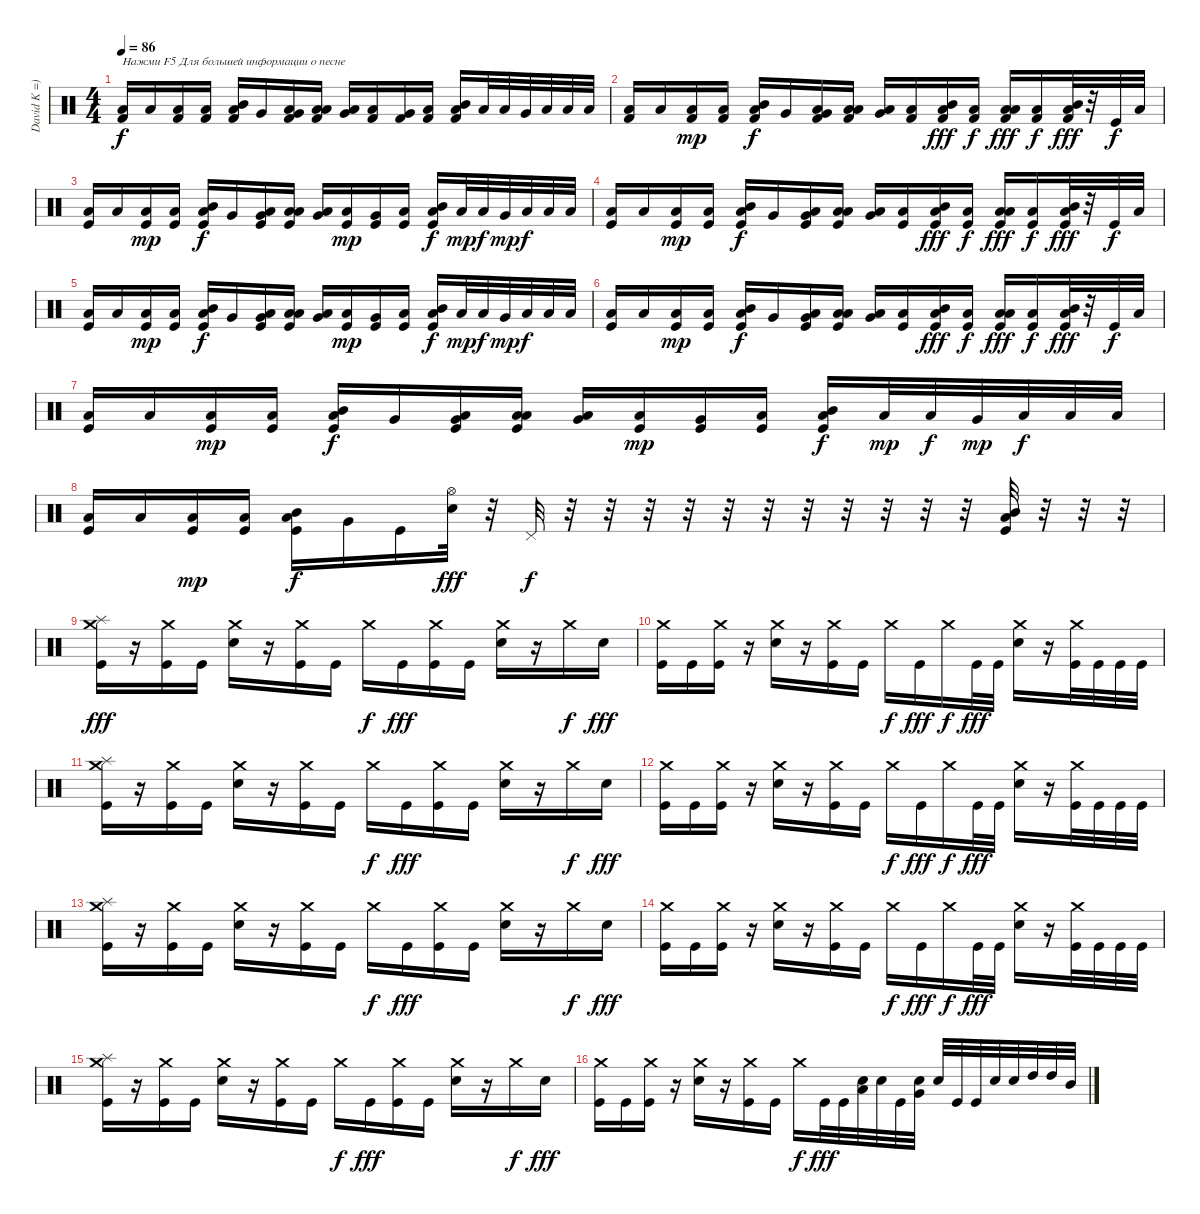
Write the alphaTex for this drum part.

\track ("David K =)" "David K =)") {instrument percussion}
\staff {score}
\articulation defaults
\ts (4 4)
\tempo 86
\clef neutral
\ks c
("Kick (hit) 2" "Low Floor Tom (hit)").16{txt "Нажми F5 Для большей информации о песне" dy f} "Low Tom (hit)".16 ("Kick (hit) 2" "Low Floor Tom (hit)").16 ("Kick (hit) 2" "Low Floor Tom (hit)").16 ("Kick (hit) 2" "Low Floor Tom (hit)" "Mid Tom (hit)").16 "Very Low Tom (hit)".16 ("Kick (hit) 2" "Low Floor Tom (hit)" "Very Low Tom (hit)").16 ("Kick (hit) 2" "Low Floor Tom (hit)" "Low Tom (hit)").16 ("Low Floor Tom (hit)" "Very Low Tom (hit)").16 ("Kick (hit) 2" "Low Floor Tom (hit)").16 ("Kick (hit) 2" "Very Low Tom (hit)").16 ("Kick (hit) 2" "Low Tom (hit)").16 ("Kick (hit) 2" "Low Floor Tom (hit)" "Mid Tom (hit)").16 "Low Floor Tom (hit)".32 "Low Tom (hit)".32 "Very Low Tom (hit)".32 "Low Floor Tom (hit)".32 "Low Floor Tom (hit)".32 "Low Tom (hit)".32 |
("Kick (hit) 2" "Low Floor Tom (hit)").16 "Low Tom (hit)".16 ("Kick (hit) 2" "Low Floor Tom (hit)").16{dy mp} ("Kick (hit) 2" "Low Floor Tom (hit)").16 ("Kick (hit) 2" "Low Floor Tom (hit)" "Mid Tom (hit)").16{dy f} "Very Low Tom (hit)".16 ("Kick (hit) 2" "Low Floor Tom (hit)" "Very Low Tom (hit)").16 ("Kick (hit) 2" "Low Floor Tom (hit)" "Low Tom (hit)").16 ("Low Floor Tom (hit)" "Very Low Tom (hit)").16 ("Kick (hit) 2" "Low Floor Tom (hit)").16 ("Kick (hit) 2" "Mid Tom (hit)" "Low Floor Tom (hit)").16{dy fff} ("Kick (hit) 2" "Low Floor Tom (hit)").16{dy f} ("Kick (hit) 2" "Low Tom (hit)" "Low Floor Tom (hit)").16{dy fff} ("Kick (hit) 2" "Low Floor Tom (hit)").16{dy f} ("Kick (hit) 2" "Mid Tom (hit)" "Low Floor Tom (hit)").32{dy fff} r.32 "Kick (hit)".32{dy f} "Low Floor Tom (hit)".32 |
("Kick (hit)" "Low Floor Tom (hit)").16 "Low Tom (hit)".16 ("Kick (hit)" "Low Floor Tom (hit)").16{dy mp} ("Kick (hit)" "Low Floor Tom (hit)").16 ("Kick (hit)" "Low Floor Tom (hit)" "Mid Tom (hit)").16{dy f} "Very Low Tom (hit)".16 ("Kick (hit)" "Low Floor Tom (hit)" "Very Low Tom (hit)").16 ("Kick (hit)" "Low Floor Tom (hit)" "Low Tom (hit)").16 ("Low Floor Tom (hit)" "Very Low Tom (hit)").16 ("Kick (hit)" "Low Floor Tom (hit)").16{dy mp} ("Kick (hit)" "Very Low Tom (hit)").16 ("Kick (hit)" "Low Tom (hit)").16 ("Kick (hit)" "Low Floor Tom (hit)" "Mid Tom (hit)").16{dy f} "Low Floor Tom (hit)".32{dy mp} "Low Tom (hit)".32{dy f} "Very Low Tom (hit)".32{dy mp} "Low Floor Tom (hit)".32{dy f} "Low Floor Tom (hit)".32 "Low Tom (hit)".32 |
("Kick (hit)" "Low Floor Tom (hit)").16 "Low Tom (hit)".16 ("Kick (hit)" "Low Floor Tom (hit)").16{dy mp} ("Kick (hit)" "Low Floor Tom (hit)").16 ("Kick (hit)" "Low Floor Tom (hit)" "Mid Tom (hit)").16{dy f} "Very Low Tom (hit)".16 ("Kick (hit)" "Low Floor Tom (hit)" "Very Low Tom (hit)").16 ("Kick (hit)" "Low Floor Tom (hit)" "Low Tom (hit)").16 ("Low Floor Tom (hit)" "Very Low Tom (hit)").16 ("Kick (hit)" "Low Floor Tom (hit)").16 ("Kick (hit)" "Mid Tom (hit)" "Low Floor Tom (hit)").16{dy fff} ("Kick (hit)" "Low Floor Tom (hit)").16{dy f} ("Kick (hit)" "Low Tom (hit)" "Low Floor Tom (hit)").16{dy fff} ("Kick (hit)" "Low Floor Tom (hit)").16{dy f} ("Kick (hit)" "Mid Tom (hit)" "Low Floor Tom (hit)").32{dy fff} r.32 "Kick (hit)".32{dy f} "Low Floor Tom (hit)".32 |
("Kick (hit)" "Low Floor Tom (hit)").16 "Low Tom (hit)".16 ("Kick (hit)" "Low Floor Tom (hit)").16{dy mp} ("Kick (hit)" "Low Floor Tom (hit)").16 ("Kick (hit)" "Low Floor Tom (hit)" "Mid Tom (hit)").16{dy f} "Very Low Tom (hit)".16 ("Kick (hit)" "Low Floor Tom (hit)" "Very Low Tom (hit)").16 ("Kick (hit)" "Low Floor Tom (hit)" "Low Tom (hit)").16 ("Low Floor Tom (hit)" "Very Low Tom (hit)").16 ("Kick (hit)" "Low Floor Tom (hit)").16{dy mp} ("Kick (hit)" "Very Low Tom (hit)").16 ("Kick (hit)" "Low Tom (hit)").16 ("Kick (hit)" "Low Floor Tom (hit)" "Mid Tom (hit)").16{dy f} "Low Floor Tom (hit)".32{dy mp} "Low Tom (hit)".32{dy f} "Very Low Tom (hit)".32{dy mp} "Low Floor Tom (hit)".32{dy f} "Low Floor Tom (hit)".32 "Low Tom (hit)".32 |
("Kick (hit)" "Low Floor Tom (hit)").16 "Low Tom (hit)".16 ("Kick (hit)" "Low Floor Tom (hit)").16{dy mp} ("Kick (hit)" "Low Floor Tom (hit)").16 ("Kick (hit)" "Low Floor Tom (hit)" "Mid Tom (hit)").16{dy f} "Very Low Tom (hit)".16 ("Kick (hit)" "Low Floor Tom (hit)" "Very Low Tom (hit)").16 ("Kick (hit)" "Low Floor Tom (hit)" "Low Tom (hit)").16 ("Low Floor Tom (hit)" "Very Low Tom (hit)").16 ("Kick (hit)" "Low Floor Tom (hit)").16 ("Kick (hit)" "Mid Tom (hit)" "Low Floor Tom (hit)").16{dy fff} ("Kick (hit)" "Low Floor Tom (hit)").16{dy f} ("Kick (hit)" "Low Tom (hit)" "Low Floor Tom (hit)").16{dy fff} ("Kick (hit)" "Low Floor Tom (hit)").16{dy f} ("Kick (hit)" "Mid Tom (hit)" "Low Floor Tom (hit)").32{dy fff} r.32 "Kick (hit)".32{dy f} "Low Floor Tom (hit)".32 |
("Kick (hit)" "Low Floor Tom (hit)").16 "Low Tom (hit)".16 ("Kick (hit)" "Low Floor Tom (hit)").16{dy mp} ("Kick (hit)" "Low Floor Tom (hit)").16 ("Kick (hit)" "Low Floor Tom (hit)" "Mid Tom (hit)").16{dy f} "Very Low Tom (hit)".16 ("Kick (hit)" "Low Floor Tom (hit)" "Very Low Tom (hit)").16 ("Kick (hit)" "Low Floor Tom (hit)" "Low Tom (hit)").16 ("Low Floor Tom (hit)" "Very Low Tom (hit)").16 ("Kick (hit)" "Low Floor Tom (hit)").16{dy mp} ("Kick (hit)" "Very Low Tom (hit)").16 ("Kick (hit)" "Low Tom (hit)").16 ("Kick (hit)" "Low Floor Tom (hit)" "Mid Tom (hit)").16{dy f} "Low Floor Tom (hit)".32{dy mp} "Low Tom (hit)".32{dy f} "Very Low Tom (hit)".32{dy mp} "Low Floor Tom (hit)".32{dy f} "Low Floor Tom (hit)".32 "Low Tom (hit)".32 |
("Kick (hit)" "Low Floor Tom (hit)").16 "Low Tom (hit)".16 ("Kick (hit)" "Low Floor Tom (hit)").16{dy mp} ("Kick (hit)" "Low Floor Tom (hit)").16 ("Kick (hit)" "Low Floor Tom (hit)" "Mid Tom (hit)").16{dy f} "Very Low Tom (hit)".16 "Kick (hit)".16 ("Electric Snare (hit)" "Hi-Hat (open)").32{dy fff} r.32 "Pedal Hi-Hat (hit)".32{dy f} r.32 r.32 r.32 r.32 r.32 r.32 r.32 r.32 r.32 r.32 r.32 ("Mid Tom (hit)" "Low Floor Tom (hit)" "Kick (hit)").32 r.32 r.32 r.32 |
("Splash (hit)" "Crash medium (hit)" "Kick (hit)").16{dy fff} r.16 ("Crash medium (hit)" "Kick (hit)").16 "Kick (hit)".16 ("Crash medium (hit)" "Electric Snare (hit)").16 r.16 ("Crash medium (hit)" "Kick (hit)").16 "Kick (hit)".16 "Crash medium (hit)".16{dy f} "Kick (hit)".16{dy fff} ("Crash medium (hit)" "Kick (hit)").16 "Kick (hit)".16 ("Crash medium (hit)" "Electric Snare (hit)").16 r.16 "Crash medium (hit)".16{dy f} "Electric Snare (hit)".16{dy fff} |
("Crash medium (hit)" "Kick (hit)").16 "Kick (hit)".16 ("Crash medium (hit)" "Kick (hit)").16 r.16 ("Crash medium (hit)" "Electric Snare (hit)").16 r.16 ("Crash medium (hit)" "Kick (hit)").16 "Kick (hit)".16 "Crash medium (hit)".16{dy f} "Kick (hit)".16{dy fff} "Crash medium (hit)".16{dy f} "Kick (hit)".32{dy fff} "Kick (hit)".32 ("Crash medium (hit)" "Electric Snare (hit)").16 r.16 ("Crash medium (hit)" "Kick (hit)").32 "Kick (hit)".32 "Kick (hit)".32 "Kick (hit)".32 |
("Splash (hit)" "Crash medium (hit)" "Kick (hit)").16 r.16 ("Crash medium (hit)" "Kick (hit)").16 "Kick (hit)".16 ("Crash medium (hit)" "Electric Snare (hit)").16 r.16 ("Crash medium (hit)" "Kick (hit)").16 "Kick (hit)".16 "Crash medium (hit)".16{dy f} "Kick (hit)".16{dy fff} ("Crash medium (hit)" "Kick (hit)").16 "Kick (hit)".16 ("Crash medium (hit)" "Electric Snare (hit)").16 r.16 "Crash medium (hit)".16{dy f} "Electric Snare (hit)".16{dy fff} |
("Crash medium (hit)" "Kick (hit)").16 "Kick (hit)".16 ("Crash medium (hit)" "Kick (hit)").16 r.16 ("Crash medium (hit)" "Electric Snare (hit)").16 r.16 ("Crash medium (hit)" "Kick (hit)").16 "Kick (hit)".16 "Crash medium (hit)".16{dy f} "Kick (hit)".16{dy fff} "Crash medium (hit)".16{dy f} "Kick (hit)".32{dy fff} "Kick (hit)".32 ("Crash medium (hit)" "Electric Snare (hit)").16 r.16 ("Crash medium (hit)" "Kick (hit)").32 "Kick (hit)".32 "Kick (hit)".32 "Kick (hit)".32 |
("Splash (hit)" "Crash medium (hit)" "Kick (hit)").16 r.16 ("Crash medium (hit)" "Kick (hit)").16 "Kick (hit)".16 ("Crash medium (hit)" "Electric Snare (hit)").16 r.16 ("Crash medium (hit)" "Kick (hit)").16 "Kick (hit)".16 "Crash medium (hit)".16{dy f} "Kick (hit)".16{dy fff} ("Crash medium (hit)" "Kick (hit)").16 "Kick (hit)".16 ("Crash medium (hit)" "Electric Snare (hit)").16 r.16 "Crash medium (hit)".16{dy f} "Electric Snare (hit)".16{dy fff} |
("Crash medium (hit)" "Kick (hit)").16 "Kick (hit)".16 ("Crash medium (hit)" "Kick (hit)").16 r.16 ("Crash medium (hit)" "Electric Snare (hit)").16 r.16 ("Crash medium (hit)" "Kick (hit)").16 "Kick (hit)".16 "Crash medium (hit)".16{dy f} "Kick (hit)".16{dy fff} "Crash medium (hit)".16{dy f} "Kick (hit)".32{dy fff} "Kick (hit)".32 ("Crash medium (hit)" "Electric Snare (hit)").16 r.16 ("Crash medium (hit)" "Kick (hit)").32 "Kick (hit)".32 "Kick (hit)".32 "Kick (hit)".32 |
("Splash (hit)" "Crash medium (hit)" "Kick (hit)").16 r.16 ("Crash medium (hit)" "Kick (hit)").16 "Kick (hit)".16 ("Crash medium (hit)" "Electric Snare (hit)").16 r.16 ("Crash medium (hit)" "Kick (hit)").16 "Kick (hit)".16 "Crash medium (hit)".16{dy f} "Kick (hit)".16{dy fff} ("Crash medium (hit)" "Kick (hit)").16 "Kick (hit)".16 ("Crash medium (hit)" "Electric Snare (hit)").16 r.16 "Crash medium (hit)".16{dy f} "Electric Snare (hit)".16{dy fff} |
("Crash medium (hit)" "Kick (hit)").16 "Kick (hit)".16 ("Crash medium (hit)" "Kick (hit)").16 r.16 ("Crash medium (hit)" "Electric Snare (hit)").16 r.16 ("Crash medium (hit)" "Kick (hit)").16 "Kick (hit)".16 "Crash medium (hit)".16{dy f} "Kick (hit)".32{dy fff} "Kick (hit)".32 ("Low Floor Tom (hit)" "Electric Snare (hit)").32 "Electric Snare (hit)".32 "Kick (hit)".32 ("Very Low Tom (hit)" "Electric Snare (hit)").32 "Electric Snare (hit)".32 "Kick (hit)".32 "Kick (hit)".32 "Electric Snare (hit)".32 "Electric Snare (hit)".32 "High Tom (hit)".32 "High Tom (hit)".32 "Mid Tom (hit)".32
